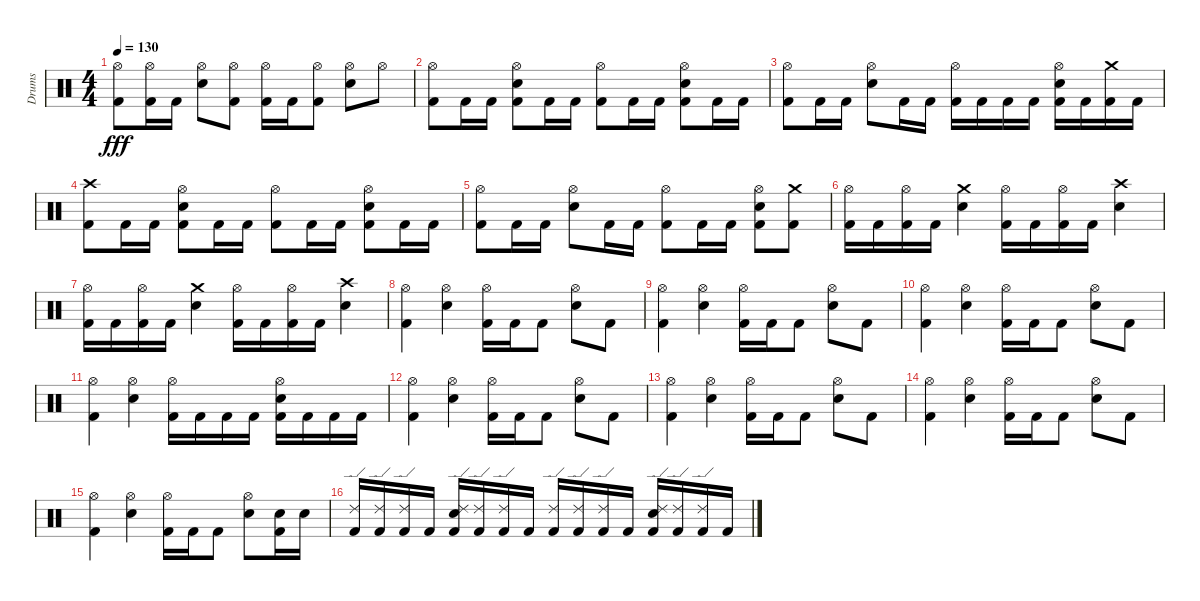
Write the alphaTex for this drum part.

\track ("Drums" "Drums") {instrument percussion}
\staff {score}
\articulation defaults
\ts (4 4)
\tempo 130
\clef neutral
\ks c
("Hi-Hat (open)" "Kick (hit) 2").8{dy fff} ("Hi-Hat (open)" "Kick (hit) 2").16 "Kick (hit) 2".16 ("Hi-Hat (open)" "Electric Snare (hit)").8 ("Hi-Hat (open)" "Kick (hit) 2").8 ("Hi-Hat (open)" "Kick (hit) 2").16 "Kick (hit) 2".16 ("Hi-Hat (open)" "Kick (hit) 2").8 ("Hi-Hat (open)" "Electric Snare (hit)").8 "Hi-Hat (open)".8 |
("Hi-Hat (open)" "Kick (hit) 2").8 "Kick (hit) 2".16 "Kick (hit) 2".16 ("Hi-Hat (open)" "Electric Snare (hit)" "Kick (hit) 2").8 "Kick (hit) 2".16 "Kick (hit) 2".16 ("Hi-Hat (open)" "Kick (hit) 2").8 "Kick (hit) 2".16 "Kick (hit) 2".16 ("Hi-Hat (open)" "Electric Snare (hit)" "Kick (hit) 2").8 "Kick (hit) 2".16 "Kick (hit) 2".16 |
("Hi-Hat (open)" "Kick (hit) 2").8 "Kick (hit) 2".16 "Kick (hit) 2".16 ("Hi-Hat (open)" "Electric Snare (hit)").8 "Kick (hit) 2".16 "Kick (hit) 2".16 ("Hi-Hat (open)" "Kick (hit) 2").16 "Kick (hit) 2".16 "Kick (hit) 2".16 "Kick (hit) 2".16 ("Hi-Hat (open)" "Electric Snare (hit)" "Kick (hit) 2").16 "Kick (hit) 2".16 ("Crash medium (hit)" "Kick (hit) 2").16 "Kick (hit) 2".16 |
("Crash high (hit)" "Kick (hit) 2").8 "Kick (hit) 2".16 "Kick (hit) 2".16 ("Hi-Hat (open)" "Electric Snare (hit)" "Kick (hit) 2").8 "Kick (hit) 2".16 "Kick (hit) 2".16 ("Hi-Hat (open)" "Kick (hit) 2").8 "Kick (hit) 2".16 "Kick (hit) 2".16 ("Hi-Hat (open)" "Electric Snare (hit)" "Kick (hit) 2").8 "Kick (hit) 2".16 "Kick (hit) 2".16 |
("Hi-Hat (open)" "Kick (hit) 2").8 "Kick (hit) 2".16 "Kick (hit) 2".16 ("Hi-Hat (open)" "Electric Snare (hit)").8 "Kick (hit) 2".16 "Kick (hit) 2".16 ("Hi-Hat (open)" "Kick (hit) 2").8 "Kick (hit) 2".16 "Kick (hit) 2".16 ("Hi-Hat (open)" "Electric Snare (hit)" "Kick (hit) 2").8 ("Crash medium (hit)" "Kick (hit) 2").8 |
("Hi-Hat (open)" "Kick (hit) 2").16 "Kick (hit) 2".16 ("Hi-Hat (open)" "Kick (hit) 2").16 "Kick (hit) 2".16 ("Crash medium (hit)" "Electric Snare (hit)").4 ("Hi-Hat (open)" "Kick (hit) 2").16 "Kick (hit) 2".16 ("Hi-Hat (open)" "Kick (hit) 2").16 "Kick (hit) 2".16 ("Crash high (hit)" "Electric Snare (hit)").4 |
("Kick (hit) 2" "Hi-Hat (open)").16 "Kick (hit) 2".16 ("Kick (hit) 2" "Hi-Hat (open)").16 "Kick (hit) 2".16 ("Electric Snare (hit)" "Crash medium (hit)").4 ("Hi-Hat (open)" "Kick (hit) 2").16 "Kick (hit) 2".16 ("Hi-Hat (open)" "Kick (hit) 2").16 "Kick (hit) 2".16 ("Crash high (hit)" "Electric Snare (hit)").4 |
("Hi-Hat (open)" "Kick (hit) 2").4 ("Hi-Hat (open)" "Snare (hit) 2").4 ("Hi-Hat (open)" "Kick (hit) 2").16 "Kick (hit) 2".16 "Kick (hit) 2".8 ("Hi-Hat (open)" "Electric Snare (hit)").8 "Kick (hit) 2".8 |
("Hi-Hat (open)" "Kick (hit) 2").4 ("Hi-Hat (open)" "Snare (hit) 2").4 ("Hi-Hat (open)" "Kick (hit) 2").16 "Kick (hit) 2".16 "Kick (hit) 2".8 ("Hi-Hat (open)" "Electric Snare (hit)").8 "Kick (hit) 2".8 |
("Hi-Hat (open)" "Kick (hit) 2").4 ("Hi-Hat (open)" "Snare (hit) 2").4 ("Hi-Hat (open)" "Kick (hit) 2").16 "Kick (hit) 2".16 "Kick (hit) 2".8 ("Hi-Hat (open)" "Electric Snare (hit)").8 "Kick (hit) 2".8 |
("Hi-Hat (open)" "Kick (hit) 2").4 ("Hi-Hat (open)" "Snare (hit) 2").4 ("Hi-Hat (open)" "Kick (hit) 2").16 "Kick (hit) 2".16 "Kick (hit) 2".16 "Kick (hit) 2".16 ("Kick (hit) 2" "Hi-Hat (open)" "Electric Snare (hit)").16 "Kick (hit) 2".16 "Kick (hit) 2".16 "Kick (hit) 2".16 |
("Hi-Hat (open)" "Kick (hit) 2").4 ("Hi-Hat (open)" "Snare (hit) 2").4 ("Hi-Hat (open)" "Kick (hit) 2").16 "Kick (hit) 2".16 "Kick (hit) 2".8 ("Hi-Hat (open)" "Electric Snare (hit)").8 "Kick (hit) 2".8 |
("Hi-Hat (open)" "Kick (hit) 2").4 ("Hi-Hat (open)" "Snare (hit) 2").4 ("Hi-Hat (open)" "Kick (hit) 2").16 "Kick (hit) 2".16 "Kick (hit) 2".8 ("Hi-Hat (open)" "Electric Snare (hit)").8 "Kick (hit) 2".8 |
("Hi-Hat (open)" "Kick (hit) 2").4 ("Hi-Hat (open)" "Snare (hit) 2").4 ("Hi-Hat (open)" "Kick (hit) 2").16 "Kick (hit) 2".16 "Kick (hit) 2".8 ("Hi-Hat (open)" "Electric Snare (hit)").8 "Kick (hit) 2".8 |
("Hi-Hat (open)" "Kick (hit) 2").4 ("Hi-Hat (open)" "Snare (hit) 2").4 ("Hi-Hat (open)" "Kick (hit) 2").16 "Kick (hit) 2".16 "Kick (hit) 2".8 ("Hi-Hat (open)" "Electric Snare (hit)").8 ("Electric Snare (hit)" "Kick (hit) 2").16 "Electric Snare (hit)".16 |
("Ride (edge) 2" "Kick (hit) 2").16 ("Ride (edge) 2" "Kick (hit) 2").16 ("Ride (edge) 2" "Kick (hit) 2").16 "Kick (hit) 2".16 ("Ride (edge) 2" "Kick (hit) 2" "Electric Snare (hit)").16 ("Ride (edge) 2" "Kick (hit) 2").16 ("Ride (edge) 2" "Kick (hit) 2").16 "Kick (hit) 2".16 ("Ride (edge) 2" "Kick (hit) 2").16 ("Ride (edge) 2" "Kick (hit) 2").16 ("Ride (edge) 2" "Kick (hit) 2").16 "Kick (hit) 2".16 ("Electric Snare (hit)" "Ride (edge) 2" "Kick (hit) 2").16 ("Ride (edge) 2" "Kick (hit) 2").16 ("Ride (edge) 2" "Kick (hit) 2").16 "Kick (hit) 2".16
